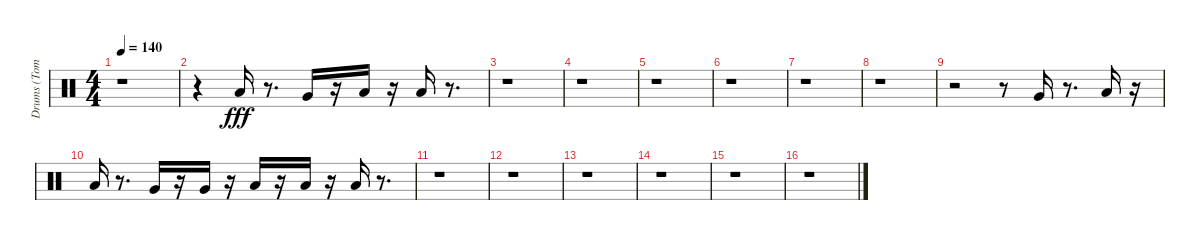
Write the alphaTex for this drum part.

\track ("Drums (Toms)" "Drums (Tom") {instrument percussion}
\staff {score}
\articulation defaults
\ts (4 4)
\tempo 140
\clef neutral
\ks c
r.1{dy fff} |
r.4 "Low Tom (hit)".16 r.8{d} "Very Low Tom (hit)".16 r.16 "Low Floor Tom (hit)".16 r.16 "Low Floor Tom (hit)".16 r.8{d} |
r.1 |
r.1 |
r.1 |
r.1 |
r.1 |
r.1 |
r.2 r.8 "Very Low Tom (hit)".16 r.8{d} "Low Tom (hit)".16 r.16 |
"Low Tom (hit)".16 r.8{d} "Very Low Tom (hit)".16 r.16 "Very Low Tom (hit)".16 r.16 "Low Floor Tom (hit)".16 r.16 "Low Floor Tom (hit)".16 r.16 "Low Floor Tom (hit)".16 r.8{d} |
r.1 |
r.1 |
r.1 |
r.1 |
r.1 |
r.1
